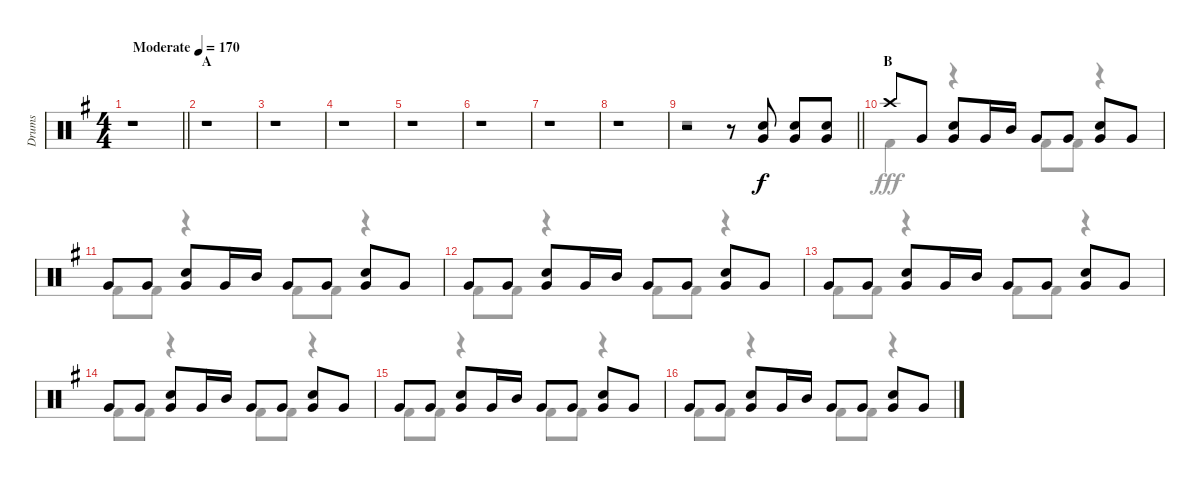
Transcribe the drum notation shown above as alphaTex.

\track ("Drums" "Drums") {instrument percussion}
\staff {score}
\articulation defaults
\voice
\ts (4 4)
\tempo (170 "Moderate")
\clef neutral
\barLineRight lightlight
\ks g
r.1{dy f} |
\section ("" "A")
r.1 |
r.1 |
r.1 |
r.1 |
r.1 |
r.1 |
r.1 |
\barLineRight lightlight
r.2 r.8 ("Snare (hit) 2" "Very Low Tom (hit)").8 ("Snare (hit) 2" "Very Low Tom (hit)").8 ("Snare (hit) 2" "Very Low Tom (hit)").8 |
\section ("" "B")
"Crash high (hit)".8 "Very Low Tom (hit)".8 ("Snare (hit) 2" "Very Low Tom (hit)").8 "Very Low Tom (hit)".16 "Mid Tom (hit)".16 "Very Low Tom (hit)".8 "Very Low Tom (hit)".8 ("Snare (hit) 2" "Very Low Tom (hit)").8 "Very Low Tom (hit)".8 |
"Very Low Tom (hit)".8 "Very Low Tom (hit)".8 ("Snare (hit) 2" "Very Low Tom (hit)").8 "Very Low Tom (hit)".16 "Mid Tom (hit)".16 "Very Low Tom (hit)".8 "Very Low Tom (hit)".8 ("Snare (hit) 2" "Very Low Tom (hit)").8 "Very Low Tom (hit)".8 |
"Very Low Tom (hit)".8 "Very Low Tom (hit)".8 ("Snare (hit) 2" "Very Low Tom (hit)").8 "Very Low Tom (hit)".16 "Mid Tom (hit)".16 "Very Low Tom (hit)".8 "Very Low Tom (hit)".8 ("Snare (hit) 2" "Very Low Tom (hit)").8 "Very Low Tom (hit)".8 |
"Very Low Tom (hit)".8 "Very Low Tom (hit)".8 ("Snare (hit) 2" "Very Low Tom (hit)").8 "Very Low Tom (hit)".16 "Mid Tom (hit)".16 "Very Low Tom (hit)".8 "Very Low Tom (hit)".8 ("Snare (hit) 2" "Very Low Tom (hit)").8 "Very Low Tom (hit)".8 |
"Very Low Tom (hit)".8 "Very Low Tom (hit)".8 ("Snare (hit) 2" "Very Low Tom (hit)").8 "Very Low Tom (hit)".16 "Mid Tom (hit)".16 "Very Low Tom (hit)".8 "Very Low Tom (hit)".8 ("Snare (hit) 2" "Very Low Tom (hit)").8 "Very Low Tom (hit)".8 |
"Very Low Tom (hit)".8 "Very Low Tom (hit)".8 ("Snare (hit) 2" "Very Low Tom (hit)").8 "Very Low Tom (hit)".16 "Mid Tom (hit)".16 "Very Low Tom (hit)".8 "Very Low Tom (hit)".8 ("Snare (hit) 2" "Very Low Tom (hit)").8 "Very Low Tom (hit)".8 |
"Very Low Tom (hit)".8 "Very Low Tom (hit)".8 ("Snare (hit) 2" "Very Low Tom (hit)").8 "Very Low Tom (hit)".16 "Mid Tom (hit)".16 "Very Low Tom (hit)".8 "Very Low Tom (hit)".8 ("Snare (hit) 2" "Very Low Tom (hit)").8 "Very Low Tom (hit)".8
\voice
\clef neutral
\ottava regular
\simile none
\barLineRight lightlight
\ks g
r.1{dy fff} |
r.1 |
r.1 |
r.1 |
r.1 |
r.1 |
r.1 |
r.1 |
\barLineRight lightlight
r.1 |
"Kick (hit) 2".4 r.4 "Kick (hit) 2".8 "Kick (hit) 2".8 r.4 |
"Kick (hit) 2".8 "Kick (hit) 2".8 r.4 "Kick (hit) 2".8 "Kick (hit) 2".8 r.4 |
"Kick (hit) 2".8 "Kick (hit) 2".8 r.4 "Kick (hit) 2".8 "Kick (hit) 2".8 r.4 |
"Kick (hit) 2".8 "Kick (hit) 2".8 r.4 "Kick (hit) 2".8 "Kick (hit) 2".8 r.4 |
"Kick (hit) 2".8 "Kick (hit) 2".8 r.4 "Kick (hit) 2".8 "Kick (hit) 2".8 r.4 |
"Kick (hit) 2".8 "Kick (hit) 2".8 r.4 "Kick (hit) 2".8 "Kick (hit) 2".8 r.4 |
"Kick (hit) 2".8 "Kick (hit) 2".8 r.4 "Kick (hit) 2".8 "Kick (hit) 2".8 r.4
